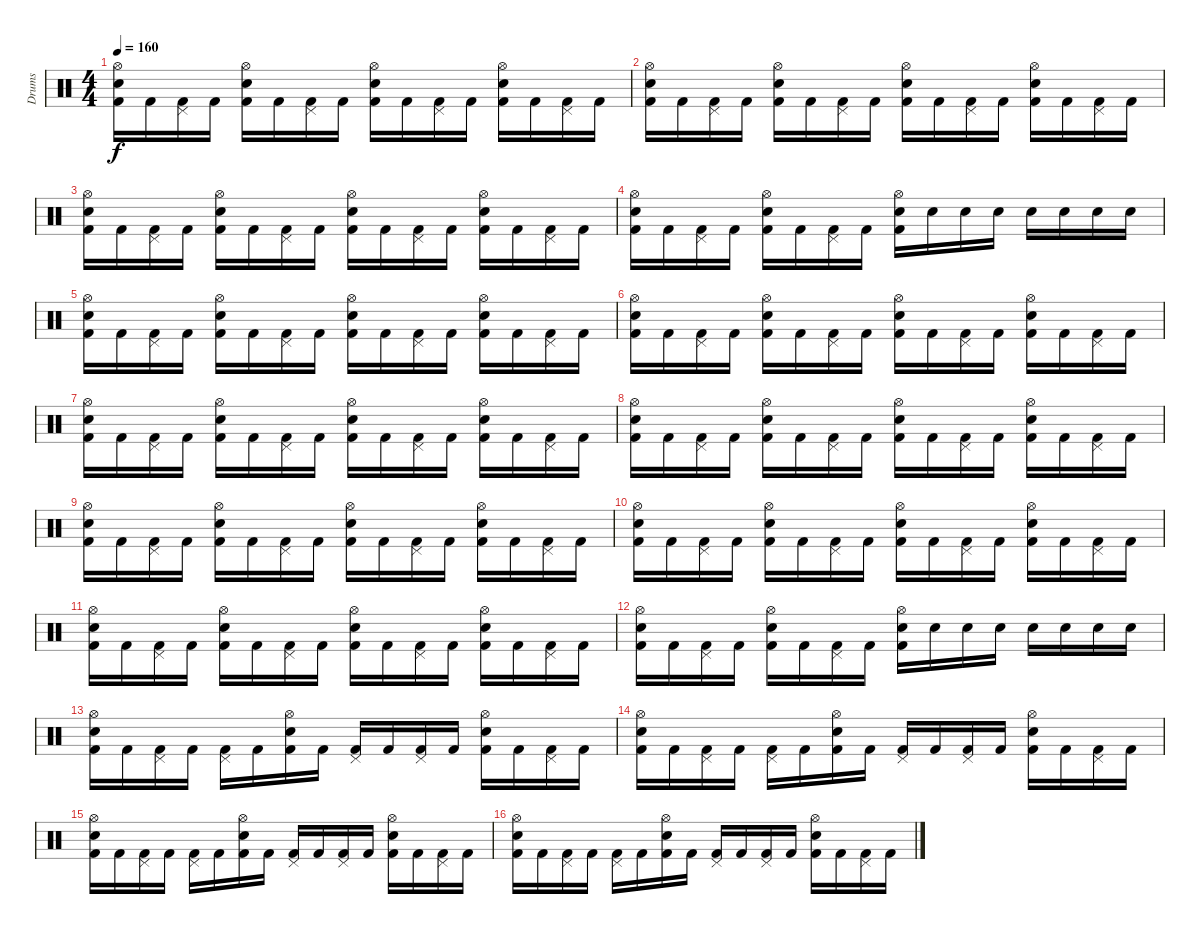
\track ("Drums" "Drums") {instrument percussion}
\staff {score}
\articulation defaults
\ts (4 4)
\tempo 160
\clef neutral
\ks c
("Hi-Hat (open)" "Electric Snare (hit)" "Kick (hit) 2").16{dy f} "Kick (hit) 2".16 ("Pedal Hi-Hat (hit)" "Kick (hit) 2").16 "Kick (hit) 2".16 ("Hi-Hat (open)" "Snare (hit) 2" "Kick (hit) 2").16 "Kick (hit) 2".16 ("Pedal Hi-Hat (hit)" "Kick (hit) 2").16 "Kick (hit) 2".16 ("Hi-Hat (open)" "Electric Snare (hit)" "Kick (hit) 2").16 "Kick (hit) 2".16 ("Pedal Hi-Hat (hit)" "Kick (hit) 2").16 "Kick (hit) 2".16 ("Hi-Hat (open)" "Snare (hit) 2" "Kick (hit) 2").16 "Kick (hit) 2".16 ("Pedal Hi-Hat (hit)" "Kick (hit) 2").16 "Kick (hit) 2".16 |
("Hi-Hat (open)" "Electric Snare (hit)" "Kick (hit) 2").16 "Kick (hit) 2".16 ("Pedal Hi-Hat (hit)" "Kick (hit) 2").16 "Kick (hit) 2".16 ("Hi-Hat (open)" "Snare (hit) 2" "Kick (hit) 2").16 "Kick (hit) 2".16 ("Pedal Hi-Hat (hit)" "Kick (hit) 2").16 "Kick (hit) 2".16 ("Hi-Hat (open)" "Electric Snare (hit)" "Kick (hit) 2").16 "Kick (hit) 2".16 ("Pedal Hi-Hat (hit)" "Kick (hit) 2").16 "Kick (hit) 2".16 ("Hi-Hat (open)" "Snare (hit) 2" "Kick (hit) 2").16 "Kick (hit) 2".16 ("Pedal Hi-Hat (hit)" "Kick (hit) 2").16 "Kick (hit) 2".16 |
("Hi-Hat (open)" "Electric Snare (hit)" "Kick (hit) 2").16 "Kick (hit) 2".16 ("Pedal Hi-Hat (hit)" "Kick (hit) 2").16 "Kick (hit) 2".16 ("Hi-Hat (open)" "Snare (hit) 2" "Kick (hit) 2").16 "Kick (hit) 2".16 ("Pedal Hi-Hat (hit)" "Kick (hit) 2").16 "Kick (hit) 2".16 ("Hi-Hat (open)" "Electric Snare (hit)" "Kick (hit) 2").16 "Kick (hit) 2".16 ("Pedal Hi-Hat (hit)" "Kick (hit) 2").16 "Kick (hit) 2".16 ("Hi-Hat (open)" "Snare (hit) 2" "Kick (hit) 2").16 "Kick (hit) 2".16 ("Pedal Hi-Hat (hit)" "Kick (hit) 2").16 "Kick (hit) 2".16 |
("Hi-Hat (open)" "Electric Snare (hit)" "Kick (hit) 2").16 "Kick (hit) 2".16 ("Pedal Hi-Hat (hit)" "Kick (hit) 2").16 "Kick (hit) 2".16 ("Hi-Hat (open)" "Snare (hit) 2" "Kick (hit) 2").16 "Kick (hit) 2".16 ("Pedal Hi-Hat (hit)" "Kick (hit) 2").16 "Kick (hit) 2".16 ("Hi-Hat (open)" "Snare (hit) 2" "Kick (hit) 2").16 "Snare (hit) 2".16 "Snare (hit) 2".16 "Snare (hit) 2".16 "Snare (hit) 2".16 "Snare (hit) 2".16 "Snare (hit) 2".16 "Snare (hit) 2".16 |
("Hi-Hat (open)" "Electric Snare (hit)" "Kick (hit) 2").16 "Kick (hit) 2".16 ("Pedal Hi-Hat (hit)" "Kick (hit) 2").16 "Kick (hit) 2".16 ("Hi-Hat (open)" "Snare (hit) 2" "Kick (hit) 2").16 "Kick (hit) 2".16 ("Pedal Hi-Hat (hit)" "Kick (hit) 2").16 "Kick (hit) 2".16 ("Hi-Hat (open)" "Electric Snare (hit)" "Kick (hit) 2").16 "Kick (hit) 2".16 ("Pedal Hi-Hat (hit)" "Kick (hit) 2").16 "Kick (hit) 2".16 ("Hi-Hat (open)" "Snare (hit) 2" "Kick (hit) 2").16 "Kick (hit) 2".16 ("Pedal Hi-Hat (hit)" "Kick (hit) 2").16 "Kick (hit) 2".16 |
("Hi-Hat (open)" "Electric Snare (hit)" "Kick (hit) 2").16 "Kick (hit) 2".16 ("Pedal Hi-Hat (hit)" "Kick (hit) 2").16 "Kick (hit) 2".16 ("Hi-Hat (open)" "Snare (hit) 2" "Kick (hit) 2").16 "Kick (hit) 2".16 ("Pedal Hi-Hat (hit)" "Kick (hit) 2").16 "Kick (hit) 2".16 ("Hi-Hat (open)" "Electric Snare (hit)" "Kick (hit) 2").16 "Kick (hit) 2".16 ("Pedal Hi-Hat (hit)" "Kick (hit) 2").16 "Kick (hit) 2".16 ("Hi-Hat (open)" "Snare (hit) 2" "Kick (hit) 2").16 "Kick (hit) 2".16 ("Pedal Hi-Hat (hit)" "Kick (hit) 2").16 "Kick (hit) 2".16 |
("Hi-Hat (open)" "Electric Snare (hit)" "Kick (hit) 2").16 "Kick (hit) 2".16 ("Pedal Hi-Hat (hit)" "Kick (hit) 2").16 "Kick (hit) 2".16 ("Hi-Hat (open)" "Snare (hit) 2" "Kick (hit) 2").16 "Kick (hit) 2".16 ("Pedal Hi-Hat (hit)" "Kick (hit) 2").16 "Kick (hit) 2".16 ("Hi-Hat (open)" "Electric Snare (hit)" "Kick (hit) 2").16 "Kick (hit) 2".16 ("Pedal Hi-Hat (hit)" "Kick (hit) 2").16 "Kick (hit) 2".16 ("Hi-Hat (open)" "Snare (hit) 2" "Kick (hit) 2").16 "Kick (hit) 2".16 ("Pedal Hi-Hat (hit)" "Kick (hit) 2").16 "Kick (hit) 2".16 |
("Hi-Hat (open)" "Electric Snare (hit)" "Kick (hit) 2").16 "Kick (hit) 2".16 ("Pedal Hi-Hat (hit)" "Kick (hit) 2").16 "Kick (hit) 2".16 ("Hi-Hat (open)" "Snare (hit) 2" "Kick (hit) 2").16 "Kick (hit) 2".16 ("Pedal Hi-Hat (hit)" "Kick (hit) 2").16 "Kick (hit) 2".16 ("Hi-Hat (open)" "Electric Snare (hit)" "Kick (hit) 2").16 "Kick (hit) 2".16 ("Pedal Hi-Hat (hit)" "Kick (hit) 2").16 "Kick (hit) 2".16 ("Hi-Hat (open)" "Snare (hit) 2" "Kick (hit) 2").16 "Kick (hit) 2".16 ("Pedal Hi-Hat (hit)" "Kick (hit) 2").16 "Kick (hit) 2".16 |
("Hi-Hat (open)" "Electric Snare (hit)" "Kick (hit) 2").16 "Kick (hit) 2".16 ("Pedal Hi-Hat (hit)" "Kick (hit) 2").16 "Kick (hit) 2".16 ("Hi-Hat (open)" "Snare (hit) 2" "Kick (hit) 2").16 "Kick (hit) 2".16 ("Pedal Hi-Hat (hit)" "Kick (hit) 2").16 "Kick (hit) 2".16 ("Hi-Hat (open)" "Electric Snare (hit)" "Kick (hit) 2").16 "Kick (hit) 2".16 ("Pedal Hi-Hat (hit)" "Kick (hit) 2").16 "Kick (hit) 2".16 ("Hi-Hat (open)" "Snare (hit) 2" "Kick (hit) 2").16 "Kick (hit) 2".16 ("Pedal Hi-Hat (hit)" "Kick (hit) 2").16 "Kick (hit) 2".16 |
("Hi-Hat (open)" "Electric Snare (hit)" "Kick (hit) 2").16 "Kick (hit) 2".16 ("Pedal Hi-Hat (hit)" "Kick (hit) 2").16 "Kick (hit) 2".16 ("Hi-Hat (open)" "Snare (hit) 2" "Kick (hit) 2").16 "Kick (hit) 2".16 ("Pedal Hi-Hat (hit)" "Kick (hit) 2").16 "Kick (hit) 2".16 ("Hi-Hat (open)" "Electric Snare (hit)" "Kick (hit) 2").16 "Kick (hit) 2".16 ("Pedal Hi-Hat (hit)" "Kick (hit) 2").16 "Kick (hit) 2".16 ("Hi-Hat (open)" "Snare (hit) 2" "Kick (hit) 2").16 "Kick (hit) 2".16 ("Pedal Hi-Hat (hit)" "Kick (hit) 2").16 "Kick (hit) 2".16 |
("Hi-Hat (open)" "Electric Snare (hit)" "Kick (hit) 2").16 "Kick (hit) 2".16 ("Pedal Hi-Hat (hit)" "Kick (hit) 2").16 "Kick (hit) 2".16 ("Hi-Hat (open)" "Snare (hit) 2" "Kick (hit) 2").16 "Kick (hit) 2".16 ("Pedal Hi-Hat (hit)" "Kick (hit) 2").16 "Kick (hit) 2".16 ("Hi-Hat (open)" "Electric Snare (hit)" "Kick (hit) 2").16 "Kick (hit) 2".16 ("Pedal Hi-Hat (hit)" "Kick (hit) 2").16 "Kick (hit) 2".16 ("Hi-Hat (open)" "Snare (hit) 2" "Kick (hit) 2").16 "Kick (hit) 2".16 ("Pedal Hi-Hat (hit)" "Kick (hit) 2").16 "Kick (hit) 2".16 |
("Hi-Hat (open)" "Electric Snare (hit)" "Kick (hit) 2").16 "Kick (hit) 2".16 ("Pedal Hi-Hat (hit)" "Kick (hit) 2").16 "Kick (hit) 2".16 ("Hi-Hat (open)" "Snare (hit) 2" "Kick (hit) 2").16 "Kick (hit) 2".16 ("Pedal Hi-Hat (hit)" "Kick (hit) 2").16 "Kick (hit) 2".16 ("Hi-Hat (open)" "Snare (hit) 2" "Kick (hit) 2").16 "Snare (hit) 2".16 "Snare (hit) 2".16 "Snare (hit) 2".16 "Snare (hit) 2".16 "Snare (hit) 2".16 "Snare (hit) 2".16 "Snare (hit) 2".16 |
("Hi-Hat (open)" "Electric Snare (hit)" "Kick (hit) 2").16 "Kick (hit) 2".16 ("Pedal Hi-Hat (hit)" "Kick (hit) 2").16 "Kick (hit) 2".16 ("Pedal Hi-Hat (hit)" "Kick (hit) 2").16 "Kick (hit) 2".16 ("Hi-Hat (open)" "Snare (hit) 2" "Kick (hit) 2").16 "Kick (hit) 2".16 ("Pedal Hi-Hat (hit)" "Kick (hit) 2").16 "Kick (hit) 2".16 ("Pedal Hi-Hat (hit)" "Kick (hit) 2").16 "Kick (hit) 2".16 ("Hi-Hat (open)" "Electric Snare (hit)" "Kick (hit) 2").16 "Kick (hit) 2".16 ("Pedal Hi-Hat (hit)" "Kick (hit) 2").16 "Kick (hit) 2".16 |
("Hi-Hat (open)" "Electric Snare (hit)" "Kick (hit) 2").16 "Kick (hit) 2".16 ("Pedal Hi-Hat (hit)" "Kick (hit) 2").16 "Kick (hit) 2".16 ("Pedal Hi-Hat (hit)" "Kick (hit) 2").16 "Kick (hit) 2".16 ("Hi-Hat (open)" "Snare (hit) 2" "Kick (hit) 2").16 "Kick (hit) 2".16 ("Pedal Hi-Hat (hit)" "Kick (hit) 2").16 "Kick (hit) 2".16 ("Pedal Hi-Hat (hit)" "Kick (hit) 2").16 "Kick (hit) 2".16 ("Hi-Hat (open)" "Electric Snare (hit)" "Kick (hit) 2").16 "Kick (hit) 2".16 ("Pedal Hi-Hat (hit)" "Kick (hit) 2").16 "Kick (hit) 2".16 |
("Hi-Hat (open)" "Electric Snare (hit)" "Kick (hit) 2").16 "Kick (hit) 2".16 ("Pedal Hi-Hat (hit)" "Kick (hit) 2").16 "Kick (hit) 2".16 ("Pedal Hi-Hat (hit)" "Kick (hit) 2").16 "Kick (hit) 2".16 ("Hi-Hat (open)" "Snare (hit) 2" "Kick (hit) 2").16 "Kick (hit) 2".16 ("Pedal Hi-Hat (hit)" "Kick (hit) 2").16 "Kick (hit) 2".16 ("Pedal Hi-Hat (hit)" "Kick (hit) 2").16 "Kick (hit) 2".16 ("Hi-Hat (open)" "Electric Snare (hit)" "Kick (hit) 2").16 "Kick (hit) 2".16 ("Pedal Hi-Hat (hit)" "Kick (hit) 2").16 "Kick (hit) 2".16 |
("Hi-Hat (open)" "Electric Snare (hit)" "Kick (hit) 2").16 "Kick (hit) 2".16 ("Pedal Hi-Hat (hit)" "Kick (hit) 2").16 "Kick (hit) 2".16 ("Pedal Hi-Hat (hit)" "Kick (hit) 2").16 "Kick (hit) 2".16 ("Hi-Hat (open)" "Snare (hit) 2" "Kick (hit) 2").16 "Kick (hit) 2".16 ("Pedal Hi-Hat (hit)" "Kick (hit) 2").16 "Kick (hit) 2".16 ("Pedal Hi-Hat (hit)" "Kick (hit) 2").16 "Kick (hit) 2".16 ("Hi-Hat (open)" "Electric Snare (hit)" "Kick (hit) 2").16 "Kick (hit) 2".16 ("Pedal Hi-Hat (hit)" "Kick (hit) 2").16 "Kick (hit) 2".16
